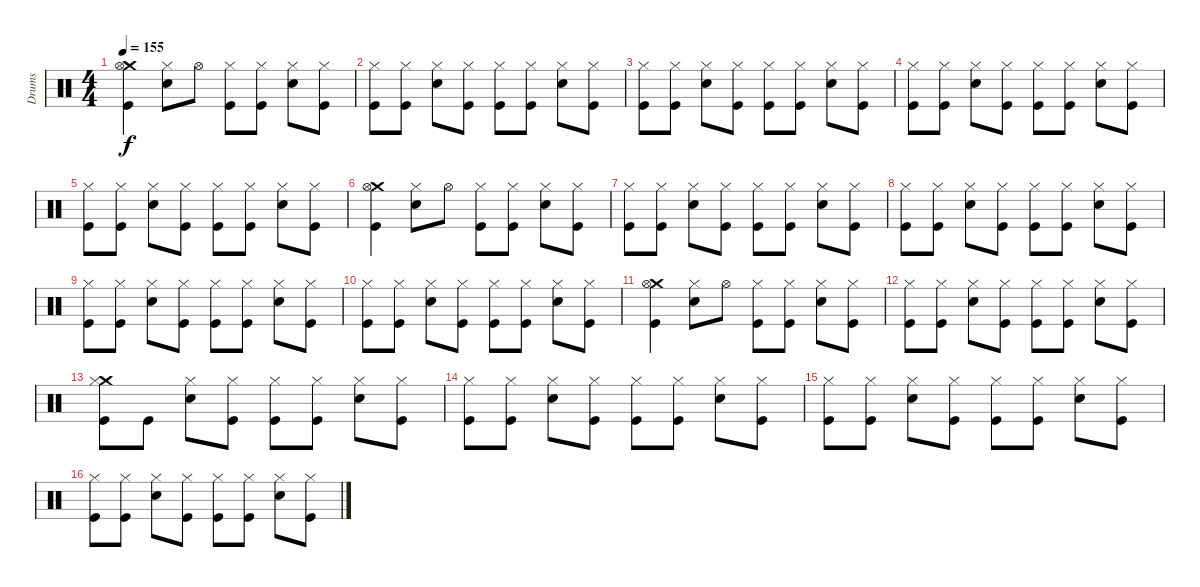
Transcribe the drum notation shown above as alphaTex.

\track ("Drums" "Drums") {instrument percussion}
\staff {score}
\articulation defaults
\ts (4 4)
\tempo 155
\clef neutral
\ks c
("Crash medium (hit)" "Hi-Hat (open)" "Kick (hit)").4{dy f} ("Hi-Hat (closed)" "Snare (hit) 2").8 "Hi-Hat (open)".8 ("Hi-Hat (closed)" "Kick (hit)").8 ("Hi-Hat (closed)" "Kick (hit)").8 ("Hi-Hat (closed)" "Snare (hit) 2").8 ("Hi-Hat (closed)" "Kick (hit)").8 |
("Hi-Hat (closed)" "Kick (hit)").8 ("Hi-Hat (closed)" "Kick (hit)").8 ("Hi-Hat (closed)" "Snare (hit) 2").8 ("Hi-Hat (closed)" "Kick (hit)").8 ("Hi-Hat (closed)" "Kick (hit)").8 ("Hi-Hat (closed)" "Kick (hit)").8 ("Hi-Hat (closed)" "Snare (hit) 2").8 ("Hi-Hat (closed)" "Kick (hit)").8 |
("Hi-Hat (closed)" "Kick (hit)").8 ("Hi-Hat (closed)" "Kick (hit)").8 ("Hi-Hat (closed)" "Snare (hit) 2").8 ("Hi-Hat (closed)" "Kick (hit)").8 ("Hi-Hat (closed)" "Kick (hit)").8 ("Hi-Hat (closed)" "Kick (hit)").8 ("Hi-Hat (closed)" "Snare (hit) 2").8 ("Hi-Hat (closed)" "Kick (hit)").8 |
("Hi-Hat (closed)" "Kick (hit)").8 ("Hi-Hat (closed)" "Kick (hit)").8 ("Hi-Hat (closed)" "Snare (hit) 2").8 ("Hi-Hat (closed)" "Kick (hit)").8 ("Hi-Hat (closed)" "Kick (hit)").8 ("Hi-Hat (closed)" "Kick (hit)").8 ("Hi-Hat (closed)" "Snare (hit) 2").8 ("Hi-Hat (closed)" "Kick (hit)").8 |
("Hi-Hat (closed)" "Kick (hit)").8 ("Hi-Hat (closed)" "Kick (hit)").8 ("Hi-Hat (closed)" "Snare (hit) 2").8 ("Hi-Hat (closed)" "Kick (hit)").8 ("Hi-Hat (closed)" "Kick (hit)").8 ("Hi-Hat (closed)" "Kick (hit)").8 ("Hi-Hat (closed)" "Snare (hit) 2").8 ("Hi-Hat (closed)" "Kick (hit)").8 |
("Crash medium (hit)" "Hi-Hat (open)" "Kick (hit)").4 ("Hi-Hat (closed)" "Snare (hit) 2").8 "Hi-Hat (open)".8 ("Hi-Hat (closed)" "Kick (hit)").8 ("Hi-Hat (closed)" "Kick (hit)").8 ("Hi-Hat (closed)" "Snare (hit) 2").8 ("Hi-Hat (closed)" "Kick (hit)").8 |
("Hi-Hat (closed)" "Kick (hit)").8 ("Hi-Hat (closed)" "Kick (hit)").8 ("Hi-Hat (closed)" "Snare (hit) 2").8 ("Hi-Hat (closed)" "Kick (hit)").8 ("Hi-Hat (closed)" "Kick (hit)").8 ("Hi-Hat (closed)" "Kick (hit)").8 ("Hi-Hat (closed)" "Snare (hit) 2").8 ("Hi-Hat (closed)" "Kick (hit)").8 |
("Hi-Hat (closed)" "Kick (hit)").8 ("Hi-Hat (closed)" "Kick (hit)").8 ("Hi-Hat (closed)" "Snare (hit) 2").8 ("Hi-Hat (closed)" "Kick (hit)").8 ("Hi-Hat (closed)" "Kick (hit)").8 ("Hi-Hat (closed)" "Kick (hit)").8 ("Hi-Hat (closed)" "Snare (hit) 2").8 ("Hi-Hat (closed)" "Kick (hit)").8 |
("Hi-Hat (closed)" "Kick (hit)").8 ("Hi-Hat (closed)" "Kick (hit)").8 ("Hi-Hat (closed)" "Snare (hit) 2").8 ("Hi-Hat (closed)" "Kick (hit)").8 ("Hi-Hat (closed)" "Kick (hit)").8 ("Hi-Hat (closed)" "Kick (hit)").8 ("Hi-Hat (closed)" "Snare (hit) 2").8 ("Hi-Hat (closed)" "Kick (hit)").8 |
("Hi-Hat (closed)" "Kick (hit)").8 ("Hi-Hat (closed)" "Kick (hit)").8 ("Hi-Hat (closed)" "Snare (hit) 2").8 ("Hi-Hat (closed)" "Kick (hit)").8 ("Hi-Hat (closed)" "Kick (hit)").8 ("Hi-Hat (closed)" "Kick (hit)").8 ("Hi-Hat (closed)" "Snare (hit) 2").8 ("Hi-Hat (closed)" "Kick (hit)").8 |
("Crash medium (hit)" "Hi-Hat (open)" "Kick (hit)").4 ("Hi-Hat (closed)" "Snare (hit) 2").8 "Hi-Hat (open)".8 ("Hi-Hat (closed)" "Kick (hit)").8 ("Hi-Hat (closed)" "Kick (hit)").8 ("Hi-Hat (closed)" "Snare (hit) 2").8 ("Hi-Hat (closed)" "Kick (hit)").8 |
("Hi-Hat (closed)" "Kick (hit)").8 ("Hi-Hat (closed)" "Kick (hit)").8 ("Hi-Hat (closed)" "Snare (hit) 2").8 ("Hi-Hat (closed)" "Kick (hit)").8 ("Hi-Hat (closed)" "Kick (hit)").8 ("Hi-Hat (closed)" "Kick (hit)").8 ("Hi-Hat (closed)" "Snare (hit) 2").8 ("Hi-Hat (closed)" "Kick (hit)").8 |
("Crash medium (hit)" "Hi-Hat (closed)" "Kick (hit)").8 "Kick (hit)".8 ("Hi-Hat (closed)" "Snare (hit) 2").8 ("Hi-Hat (closed)" "Kick (hit)").8 ("Hi-Hat (closed)" "Kick (hit)").8 ("Hi-Hat (closed)" "Kick (hit)").8 ("Hi-Hat (closed)" "Snare (hit) 2").8 ("Hi-Hat (closed)" "Kick (hit)").8 |
("Hi-Hat (closed)" "Kick (hit)").8 ("Hi-Hat (closed)" "Kick (hit)").8 ("Hi-Hat (closed)" "Snare (hit) 2").8 ("Hi-Hat (closed)" "Kick (hit)").8 ("Hi-Hat (closed)" "Kick (hit)").8 ("Hi-Hat (closed)" "Kick (hit)").8 ("Hi-Hat (closed)" "Snare (hit) 2").8 ("Hi-Hat (closed)" "Kick (hit)").8 |
("Hi-Hat (closed)" "Kick (hit)").8 ("Hi-Hat (closed)" "Kick (hit)").8 ("Hi-Hat (closed)" "Snare (hit) 2").8 ("Hi-Hat (closed)" "Kick (hit)").8 ("Hi-Hat (closed)" "Kick (hit)").8 ("Hi-Hat (closed)" "Kick (hit)").8 ("Hi-Hat (closed)" "Snare (hit) 2").8 ("Hi-Hat (closed)" "Kick (hit)").8 |
("Hi-Hat (closed)" "Kick (hit)").8 ("Hi-Hat (closed)" "Kick (hit)").8 ("Hi-Hat (closed)" "Snare (hit) 2").8 ("Hi-Hat (closed)" "Kick (hit)").8 ("Hi-Hat (closed)" "Kick (hit)").8 ("Hi-Hat (closed)" "Kick (hit)").8 ("Hi-Hat (closed)" "Snare (hit) 2").8 ("Hi-Hat (closed)" "Kick (hit)").8
